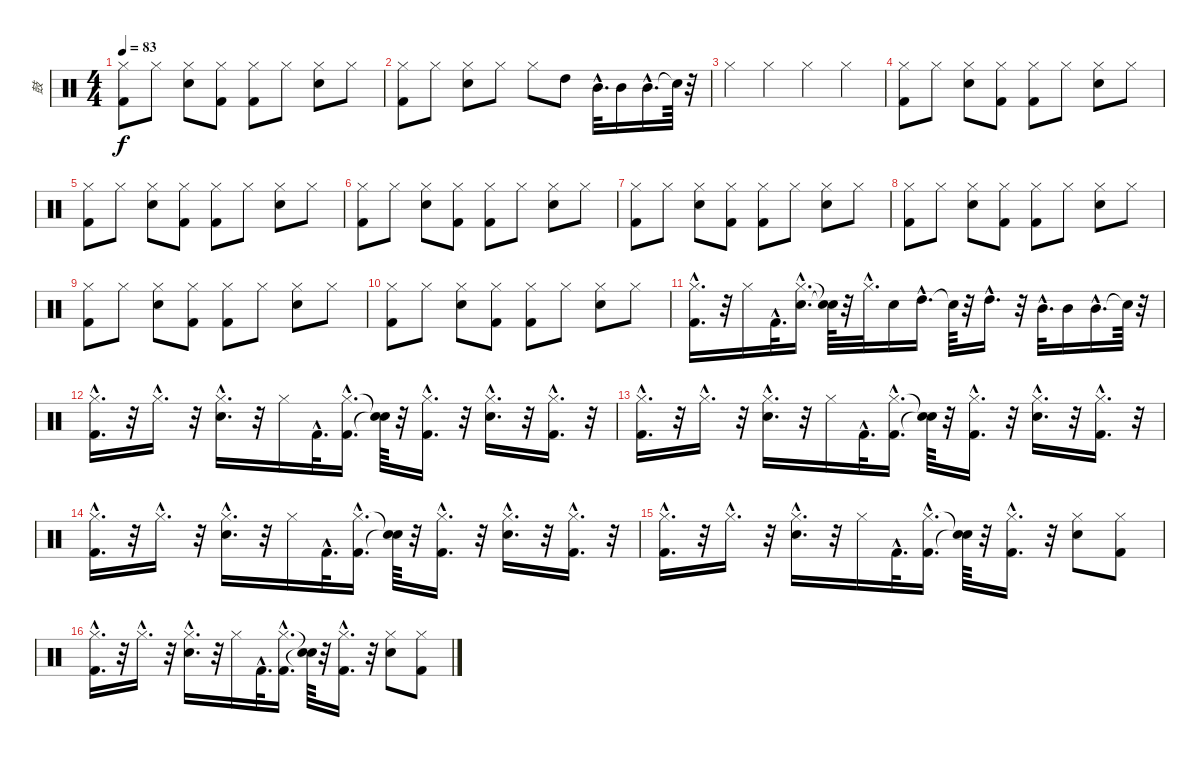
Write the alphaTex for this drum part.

\track ("鼓" "鼓") {instrument percussion}
\staff {score}
\articulation defaults
\ts (4 4)
\tempo 83
\clef neutral
\ks c
("Kick (hit) 2" "Hi-Hat (closed)").8{dy f} "Hi-Hat (closed)".8 ("Hi-Hat (closed)" "Snare (hit) 2").8 ("Hi-Hat (closed)" "Kick (hit) 2").8 ("Kick (hit) 2" "Hi-Hat (closed)").8 "Hi-Hat (closed)".8 ("Hi-Hat (closed)" "Snare (hit) 2").8 "Hi-Hat (closed)".8 |
("Kick (hit) 2" "Hi-Hat (closed)").8 "Hi-Hat (closed)".8 ("Hi-Hat (closed)" "Snare (hit) 2").8 "Hi-Hat (closed)".8 "Hi-Hat (closed)".8 "High Tom (hit)".8 "Mid Tom (hit)"{hac}.32{d} "Mid Tom (hit)".16 "Mid Tom (hit)"{hac}.16{d} "Snare (hit)"{t}.64 r.32 |
"Hi-Hat (closed)".4 "Hi-Hat (closed)".4 "Hi-Hat (closed)".4 "Hi-Hat (closed)".4 |
("Kick (hit) 2" "Hi-Hat (closed)").8 "Hi-Hat (closed)".8 ("Hi-Hat (closed)" "Snare (hit) 2").8 ("Hi-Hat (closed)" "Kick (hit) 2").8 ("Kick (hit) 2" "Hi-Hat (closed)").8 "Hi-Hat (closed)".8 ("Hi-Hat (closed)" "Snare (hit) 2").8 "Hi-Hat (closed)".8 |
("Kick (hit) 2" "Hi-Hat (closed)").8 "Hi-Hat (closed)".8 ("Hi-Hat (closed)" "Snare (hit) 2").8 ("Hi-Hat (closed)" "Kick (hit) 2").8 ("Kick (hit) 2" "Hi-Hat (closed)").8 "Hi-Hat (closed)".8 ("Hi-Hat (closed)" "Snare (hit) 2").8 "Hi-Hat (closed)".8 |
("Kick (hit) 2" "Hi-Hat (closed)").8 "Hi-Hat (closed)".8 ("Hi-Hat (closed)" "Snare (hit) 2").8 ("Hi-Hat (closed)" "Kick (hit) 2").8 ("Kick (hit) 2" "Hi-Hat (closed)").8 "Hi-Hat (closed)".8 ("Hi-Hat (closed)" "Snare (hit) 2").8 "Hi-Hat (closed)".8 |
("Kick (hit) 2" "Hi-Hat (closed)").8 "Hi-Hat (closed)".8 ("Hi-Hat (closed)" "Snare (hit) 2").8 ("Hi-Hat (closed)" "Kick (hit) 2").8 ("Kick (hit) 2" "Hi-Hat (closed)").8 "Hi-Hat (closed)".8 ("Hi-Hat (closed)" "Snare (hit) 2").8 "Hi-Hat (closed)".8 |
("Kick (hit) 2" "Hi-Hat (closed)").8 "Hi-Hat (closed)".8 ("Hi-Hat (closed)" "Snare (hit) 2").8 ("Hi-Hat (closed)" "Kick (hit) 2").8 ("Kick (hit) 2" "Hi-Hat (closed)").8 "Hi-Hat (closed)".8 ("Hi-Hat (closed)" "Snare (hit) 2").8 "Hi-Hat (closed)".8 |
("Kick (hit) 2" "Hi-Hat (closed)").8 "Hi-Hat (closed)".8 ("Hi-Hat (closed)" "Snare (hit) 2").8 ("Hi-Hat (closed)" "Kick (hit) 2").8 ("Kick (hit) 2" "Hi-Hat (closed)").8 "Hi-Hat (closed)".8 ("Hi-Hat (closed)" "Snare (hit) 2").8 "Hi-Hat (closed)".8 |
("Kick (hit) 2" "Hi-Hat (closed)").8 "Hi-Hat (closed)".8 ("Hi-Hat (closed)" "Snare (hit) 2").8 ("Hi-Hat (closed)" "Kick (hit) 2").8 ("Kick (hit) 2" "Hi-Hat (closed)").8 "Hi-Hat (closed)".8 ("Hi-Hat (closed)" "Snare (hit) 2").8 "Hi-Hat (closed)".8 |
("Hi-Hat (closed)"{hac} "Kick (hit) 2"{hac}).16{d} r.32 "Hi-Hat (closed)".16 "Kick (hit) 2"{hac}.32{d} ("Hi-Hat (closed)"{hac} "Snare (hit) 2"{hac}).16{d} ("Snare (hit)"{t} "Snare (hit)"{t}).64 r.32 "Hi-Hat (closed)"{hac}.32{d} "Snare (hit) 2".16 "High Tom (hit)"{hac}.16{d} "Snare (hit)"{t}.64 r.32 "High Tom (hit)"{hac}.16{d} r.32 "Mid Tom (hit)"{hac}.32{d} "Mid Tom (hit)".16 "Mid Tom (hit)"{hac}.16{d} "Snare (hit)"{t}.64 r.32 |
("Kick (hit) 2"{hac} "Hi-Hat (closed)"{hac}).16{d} r.32 "Hi-Hat (closed)"{hac}.16{d} r.32 ("Hi-Hat (closed)"{hac} "Snare (hit) 2"{hac}).16{d} r.32 "Hi-Hat (closed)".16 "Kick (hit) 2"{hac}.32{d} ("Hi-Hat (closed)"{hac} "Kick (hit) 2"{hac}).16{d} ("Snare (hit)"{t} "Snare (hit)"{t}).64 r.32 ("Hi-Hat (closed)"{hac} "Kick (hit) 2"{hac}).16{d} r.32 ("Hi-Hat (closed)"{hac} "Snare (hit) 2"{hac}).16{d} r.32 ("Hi-Hat (closed)"{hac} "Kick (hit) 2"{hac}).16{d} r.32 |
("Hi-Hat (closed)"{hac} "Kick (hit) 2"{hac}).16{d} r.32 "Hi-Hat (closed)"{hac}.16{d} r.32 ("Hi-Hat (closed)"{hac} "Snare (hit) 2"{hac}).16{d} r.32 "Hi-Hat (closed)".16 "Kick (hit) 2"{hac}.32{d} ("Hi-Hat (closed)"{hac} "Kick (hit) 2"{hac}).16{d} ("Snare (hit)"{t} "Snare (hit)"{t}).64 r.32 ("Hi-Hat (closed)"{hac} "Kick (hit) 2"{hac}).16{d} r.32 ("Snare (hit) 2"{hac} "Hi-Hat (closed)"{hac}).16{d} r.32 ("Hi-Hat (closed)"{hac} "Kick (hit) 2"{hac}).16{d} r.32 |
("Hi-Hat (closed)"{hac} "Kick (hit) 2"{hac}).16{d} r.32 "Hi-Hat (closed)"{hac}.16{d} r.32 ("Snare (hit) 2"{hac} "Hi-Hat (closed)"{hac}).16{d} r.32 "Hi-Hat (closed)".16 "Kick (hit) 2"{hac}.32{d} ("Hi-Hat (closed)"{hac} "Kick (hit) 2"{hac}).16{d} ("Snare (hit)"{t} "Snare (hit)"{t}).64 r.32 ("Hi-Hat (closed)"{hac} "Kick (hit) 2"{hac}).16{d} r.32 ("Hi-Hat (closed)"{hac} "Snare (hit) 2"{hac}).16{d} r.32 ("Hi-Hat (closed)"{hac} "Kick (hit) 2"{hac}).16{d} r.32 |
("Hi-Hat (closed)"{hac} "Kick (hit) 2"{hac}).16{d} r.32 "Hi-Hat (closed)"{hac}.16{d} r.32 ("Hi-Hat (closed)"{hac} "Snare (hit) 2"{hac}).16{d} r.32 "Hi-Hat (closed)".16 "Kick (hit) 2"{hac}.32{d} ("Hi-Hat (closed)"{hac} "Kick (hit) 2"{hac}).16{d} ("Snare (hit)"{t} "Snare (hit)"{t}).64 r.32 ("Hi-Hat (closed)"{hac} "Kick (hit) 2"{hac}).16{d} r.32 ("Snare (hit) 2" "Hi-Hat (closed)").8 ("Kick (hit) 2" "Hi-Hat (closed)").8 |
("Hi-Hat (closed)"{hac} "Kick (hit) 2"{hac}).16{d} r.32 "Hi-Hat (closed)"{hac}.16{d} r.32 ("Snare (hit) 2"{hac} "Hi-Hat (closed)"{hac}).16{d} r.32 "Hi-Hat (closed)".16 "Kick (hit) 2"{hac}.32{d} ("Hi-Hat (closed)"{hac} "Kick (hit) 2"{hac}).16{d} ("Snare (hit)"{t} "Snare (hit)"{t}).64 r.32 ("Hi-Hat (closed)"{hac} "Kick (hit) 2"{hac}).16{d} r.32 ("Snare (hit) 2" "Hi-Hat (closed)").8 ("Hi-Hat (closed)" "Kick (hit) 2").8
